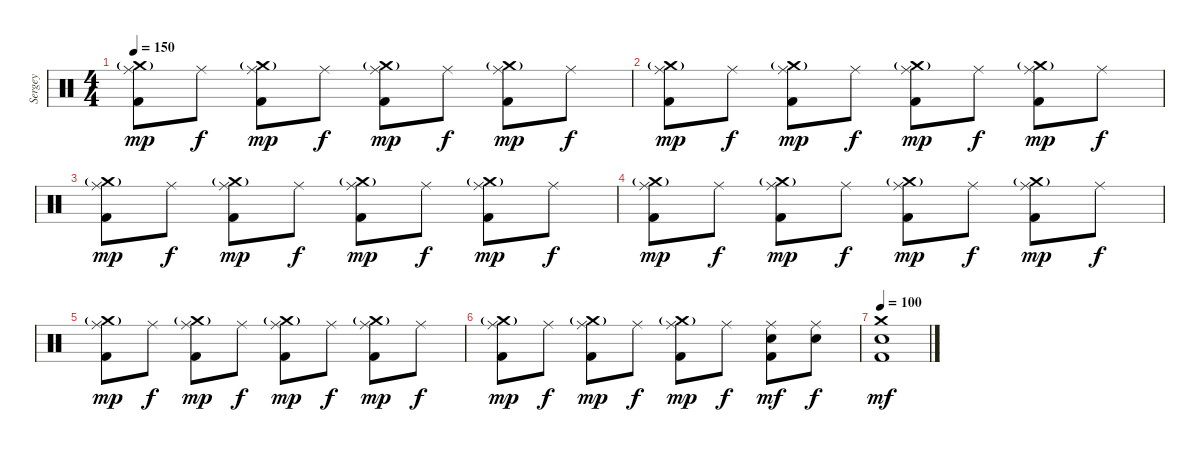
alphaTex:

\track ("Sergey" "Sergey") {instrument percussion}
\staff {score}
\articulation defaults
\ts (4 4)
\tempo 150
\clef neutral
\ks c
("Ride (middle)" "Crash medium (hit)"{g} "Kick (hit) 2").8{dy mp} "Ride (middle)".8{dy f} ("Ride (middle)" "Crash medium (hit)"{g} "Kick (hit) 2").8{dy mp} "Ride (middle)".8{dy f} ("Ride (middle)" "Crash medium (hit)"{g} "Kick (hit) 2").8{dy mp} "Ride (middle)".8{dy f} ("Ride (middle)" "Crash medium (hit)"{g} "Kick (hit) 2").8{dy mp} "Ride (middle)".8{dy f} |
("Ride (middle)" "Crash medium (hit)"{g} "Kick (hit) 2").8{dy mp} "Ride (middle)".8{dy f} ("Ride (middle)" "Crash medium (hit)"{g} "Kick (hit) 2").8{dy mp} "Ride (middle)".8{dy f} ("Ride (middle)" "Crash medium (hit)"{g} "Kick (hit) 2").8{dy mp} "Ride (middle)".8{dy f} ("Ride (middle)" "Crash medium (hit)"{g} "Kick (hit) 2").8{dy mp} "Ride (middle)".8{dy f} |
("Ride (middle)" "Crash medium (hit)"{g} "Kick (hit) 2").8{dy mp} "Ride (middle)".8{dy f} ("Ride (middle)" "Crash medium (hit)"{g} "Kick (hit) 2").8{dy mp} "Ride (middle)".8{dy f} ("Ride (middle)" "Crash medium (hit)"{g} "Kick (hit) 2").8{dy mp} "Ride (middle)".8{dy f} ("Ride (middle)" "Crash medium (hit)"{g} "Kick (hit) 2").8{dy mp} "Ride (middle)".8{dy f} |
("Ride (middle)" "Crash medium (hit)"{g} "Kick (hit) 2").8{dy mp} "Ride (middle)".8{dy f} ("Ride (middle)" "Crash medium (hit)"{g} "Kick (hit) 2").8{dy mp} "Ride (middle)".8{dy f} ("Ride (middle)" "Crash medium (hit)"{g} "Kick (hit) 2").8{dy mp} "Ride (middle)".8{dy f} ("Ride (middle)" "Crash medium (hit)"{g} "Kick (hit) 2").8{dy mp} "Ride (middle)".8{dy f} |
("Ride (middle)" "Crash medium (hit)"{g} "Kick (hit) 2").8{dy mp} "Ride (middle)".8{dy f} ("Ride (middle)" "Crash medium (hit)"{g} "Kick (hit) 2").8{dy mp} "Ride (middle)".8{dy f} ("Ride (middle)" "Crash medium (hit)"{g} "Kick (hit) 2").8{dy mp} "Ride (middle)".8{dy f} ("Ride (middle)" "Crash medium (hit)"{g} "Kick (hit) 2").8{dy mp} "Ride (middle)".8{dy f} |
("Ride (middle)" "Crash medium (hit)"{g} "Kick (hit) 2").8{dy mp} "Ride (middle)".8{dy f} ("Ride (middle)" "Crash medium (hit)"{g} "Kick (hit) 2").8{dy mp} "Ride (middle)".8{dy f} ("Ride (middle)" "Crash medium (hit)"{g} "Kick (hit) 2").8{dy mp} "Ride (middle)".8{dy f} ("Ride (middle)" "Electric Snare (hit)" "Kick (hit) 2").8{dy mf} ("Ride (middle)" "Electric Snare (hit)").8{dy f} |
\tempo 100
("Crash medium (hit)" "Electric Snare (hit)" "Kick (hit) 2").1{dy mf}
